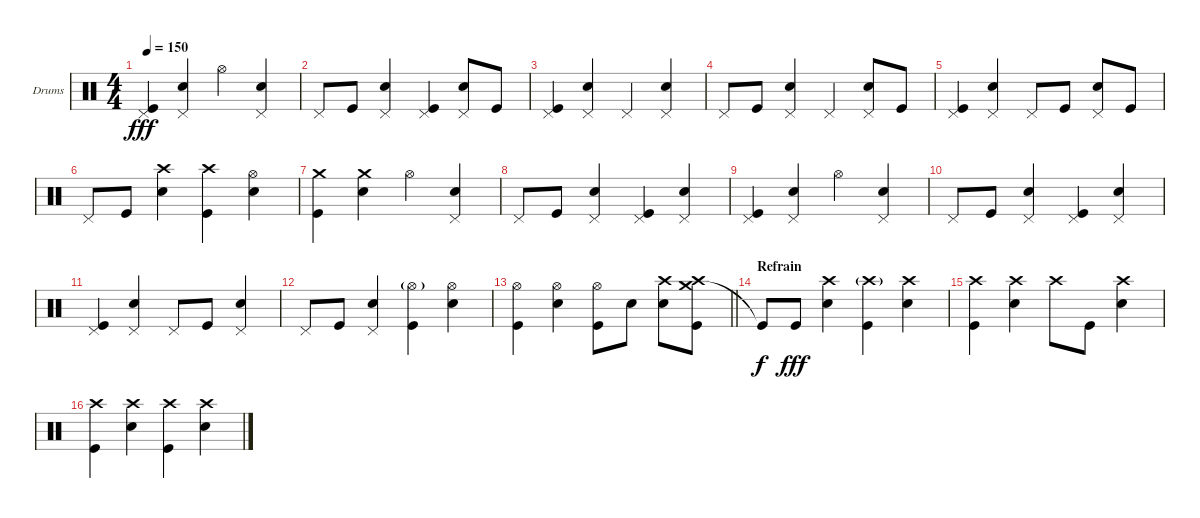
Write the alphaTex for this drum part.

\bracketExtendMode groupsimilarinstruments
\firstSystemTrackNameOrientation horizontal
\otherSystemsTrackNameOrientation horizontal
\track ("Drumkit" "Drums") {instrument percussion}
\staff {score}
\articulation defaults
\ts (4 4)
\tempo 150
\clef neutral
\ks c
("Pedal Hi-Hat (hit)" "Kick (hit)").4{dy fff} ("Pedal Hi-Hat (hit)" "Snare (hit) 2").4 "Hi-Hat (open)".4 ("Pedal Hi-Hat (hit)" "Snare (hit) 2").4 |
"Pedal Hi-Hat (hit)".8 "Kick (hit)".8 ("Pedal Hi-Hat (hit)" "Snare (hit) 2").4 ("Pedal Hi-Hat (hit)" "Kick (hit)").4 ("Pedal Hi-Hat (hit)" "Snare (hit) 2").8 "Kick (hit)".8 |
("Pedal Hi-Hat (hit)" "Kick (hit)").4 ("Pedal Hi-Hat (hit)" "Snare (hit) 2").4 "Pedal Hi-Hat (hit)".4 ("Pedal Hi-Hat (hit)" "Snare (hit) 2").4 |
"Pedal Hi-Hat (hit)".8 "Kick (hit)".8 ("Pedal Hi-Hat (hit)" "Snare (hit) 2").4 "Pedal Hi-Hat (hit)".4 ("Pedal Hi-Hat (hit)" "Snare (hit) 2").8 "Kick (hit)".8 |
("Pedal Hi-Hat (hit)" "Kick (hit)").4 ("Pedal Hi-Hat (hit)" "Snare (hit) 2").4 "Pedal Hi-Hat (hit)".8 "Kick (hit)".8 ("Pedal Hi-Hat (hit)" "Snare (hit) 2").8 "Kick (hit)".8 |
"Pedal Hi-Hat (hit)".8 "Kick (hit)".8 ("Crash high (hit)" "Snare (hit) 2").4 ("Crash high (hit)" "Kick (hit)").4 ("Hi-Hat (open)" "Snare (hit) 2").4 |
("Crash medium (hit)" "Kick (hit)").4 ("Crash medium (hit)" "Snare (hit) 2").4 "Hi-Hat (open)".4 ("Pedal Hi-Hat (hit)" "Snare (hit) 2").4 |
"Pedal Hi-Hat (hit)".8 "Kick (hit)".8 ("Pedal Hi-Hat (hit)" "Snare (hit) 2").4 ("Pedal Hi-Hat (hit)" "Kick (hit)").4 ("Pedal Hi-Hat (hit)" "Snare (hit) 2").4 |
("Pedal Hi-Hat (hit)" "Kick (hit)").4 ("Pedal Hi-Hat (hit)" "Snare (hit) 2").4 "Hi-Hat (open)".4 ("Pedal Hi-Hat (hit)" "Snare (hit) 2").4 |
"Pedal Hi-Hat (hit)".8 "Kick (hit)".8 ("Pedal Hi-Hat (hit)" "Snare (hit) 2").4 ("Pedal Hi-Hat (hit)" "Kick (hit)").4 ("Pedal Hi-Hat (hit)" "Snare (hit) 2").4 |
("Pedal Hi-Hat (hit)" "Kick (hit)").4 ("Pedal Hi-Hat (hit)" "Snare (hit) 2").4 "Pedal Hi-Hat (hit)".8 "Kick (hit)".8 ("Pedal Hi-Hat (hit)" "Snare (hit) 2").4 |
"Pedal Hi-Hat (hit)".8 "Kick (hit)".8 ("Pedal Hi-Hat (hit)" "Snare (hit) 2").4 ("Hi-Hat (open)"{g} "Kick (hit)").4 ("Hi-Hat (open)" "Snare (hit) 2").4 |
\barLineRight lightlight
("Hi-Hat (open)" "Kick (hit)").4 ("Hi-Hat (open)" "Snare (hit) 2").4 ("Hi-Hat (open)" "Kick (hit)").8 "Snare (hit) 2".8 ("Crash high (hit)" "Snare (hit) 2").8 ("Crash medium (hit)" "Crash high (hit)" "Kick (hit)").8 |
\section ("" "Refrain")
"Kick (hit)"{t}.8{dy f} "Kick (hit)".8{dy fff} ("Crash high (hit)" "Snare (hit) 2").4 ("Crash high (hit)"{g} "Kick (hit)").4 ("Crash high (hit)" "Snare (hit) 2").4 |
("Crash high (hit)" "Kick (hit)").4 ("Crash high (hit)" "Snare (hit) 2").4 "Crash high (hit)".8 "Kick (hit)".8 ("Crash high (hit)" "Snare (hit) 2").4 |
("Crash high (hit)" "Kick (hit)").4 ("Crash high (hit)" "Snare (hit) 2").4 ("Crash high (hit)" "Kick (hit)").4 ("Crash high (hit)" "Snare (hit) 2").4
